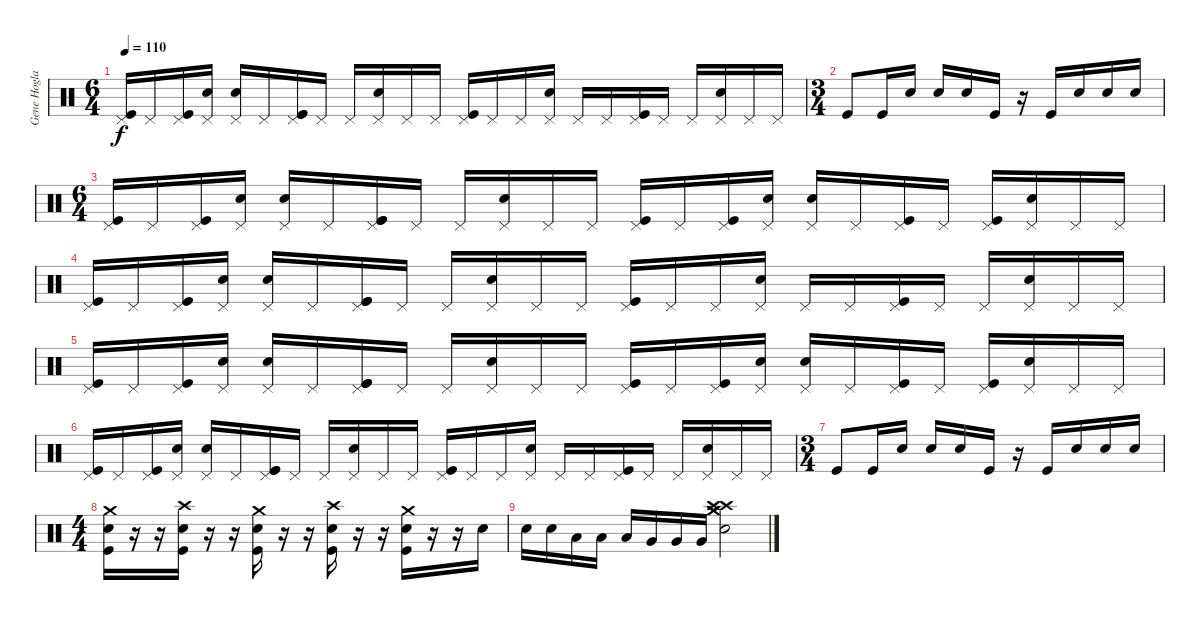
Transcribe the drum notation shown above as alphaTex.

\track ("Gene Hoglan" "Gene Hogla") {instrument percussion}
\staff {score}
\articulation defaults
\ts (6 4)
\tempo 110
\clef neutral
\ks c
("Pedal Hi-Hat (hit)" "Kick (hit)").16{dy f} "Pedal Hi-Hat (hit)".16 ("Pedal Hi-Hat (hit)" "Kick (hit)").16 ("Pedal Hi-Hat (hit)" "Snare (hit) 2").16 ("Pedal Hi-Hat (hit)" "Snare (hit) 2").16 "Pedal Hi-Hat (hit)".16 ("Pedal Hi-Hat (hit)" "Kick (hit)" "Kick (hit)").16 "Pedal Hi-Hat (hit)".16 "Pedal Hi-Hat (hit)".16 ("Pedal Hi-Hat (hit)" "Snare (hit) 2").16 "Pedal Hi-Hat (hit)".16 "Pedal Hi-Hat (hit)".16 ("Pedal Hi-Hat (hit)" "Kick (hit)").16 "Pedal Hi-Hat (hit)".16 "Pedal Hi-Hat (hit)".16 ("Pedal Hi-Hat (hit)" "Snare (hit) 2").16 "Pedal Hi-Hat (hit)".16 "Pedal Hi-Hat (hit)".16 ("Pedal Hi-Hat (hit)" "Kick (hit)").16 "Pedal Hi-Hat (hit)".16 "Pedal Hi-Hat (hit)".16 ("Pedal Hi-Hat (hit)" "Snare (hit) 2").16 "Pedal Hi-Hat (hit)".16 "Pedal Hi-Hat (hit)".16 |
\ts (3 4)
"Kick (hit)".8 "Kick (hit)".16 "Snare (hit) 2".16 "Snare (hit) 2".16 "Snare (hit) 2".16 "Kick (hit)".16 r.16 "Kick (hit)".16 "Snare (hit) 2".16 "Snare (hit) 2".16 "Snare (hit) 2".16 |
\ts (6 4)
("Pedal Hi-Hat (hit)" "Kick (hit)").16 "Pedal Hi-Hat (hit)".16 ("Pedal Hi-Hat (hit)" "Kick (hit)").16 ("Pedal Hi-Hat (hit)" "Snare (hit) 2").16 ("Pedal Hi-Hat (hit)" "Snare (hit) 2").16 "Pedal Hi-Hat (hit)".16 ("Pedal Hi-Hat (hit)" "Kick (hit)" "Kick (hit)").16 "Pedal Hi-Hat (hit)".16 "Pedal Hi-Hat (hit)".16 ("Pedal Hi-Hat (hit)" "Snare (hit) 2").16 "Pedal Hi-Hat (hit)".16 "Pedal Hi-Hat (hit)".16 ("Pedal Hi-Hat (hit)" "Kick (hit)").16 "Pedal Hi-Hat (hit)".16 ("Pedal Hi-Hat (hit)" "Kick (hit)").16 ("Pedal Hi-Hat (hit)" "Snare (hit) 2").16 ("Pedal Hi-Hat (hit)" "Snare (hit) 2").16 "Pedal Hi-Hat (hit)".16 ("Pedal Hi-Hat (hit)" "Kick (hit)").16 "Pedal Hi-Hat (hit)".16 ("Pedal Hi-Hat (hit)" "Kick (hit)").16 ("Pedal Hi-Hat (hit)" "Snare (hit) 2").16 "Pedal Hi-Hat (hit)".16 "Pedal Hi-Hat (hit)".16 |
("Pedal Hi-Hat (hit)" "Kick (hit)").16 "Pedal Hi-Hat (hit)".16 ("Pedal Hi-Hat (hit)" "Kick (hit)").16 ("Pedal Hi-Hat (hit)" "Snare (hit) 2").16 ("Pedal Hi-Hat (hit)" "Snare (hit) 2").16 "Pedal Hi-Hat (hit)".16 ("Pedal Hi-Hat (hit)" "Kick (hit)" "Kick (hit)").16 "Pedal Hi-Hat (hit)".16 "Pedal Hi-Hat (hit)".16 ("Pedal Hi-Hat (hit)" "Snare (hit) 2").16 "Pedal Hi-Hat (hit)".16 "Pedal Hi-Hat (hit)".16 ("Pedal Hi-Hat (hit)" "Kick (hit)").16 "Pedal Hi-Hat (hit)".16 "Pedal Hi-Hat (hit)".16 ("Pedal Hi-Hat (hit)" "Snare (hit) 2").16 "Pedal Hi-Hat (hit)".16 "Pedal Hi-Hat (hit)".16 ("Pedal Hi-Hat (hit)" "Kick (hit)").16 "Pedal Hi-Hat (hit)".16 "Pedal Hi-Hat (hit)".16 ("Pedal Hi-Hat (hit)" "Snare (hit) 2").16 "Pedal Hi-Hat (hit)".16 "Pedal Hi-Hat (hit)".16 |
("Pedal Hi-Hat (hit)" "Kick (hit)").16 "Pedal Hi-Hat (hit)".16 ("Pedal Hi-Hat (hit)" "Kick (hit)").16 ("Pedal Hi-Hat (hit)" "Snare (hit) 2").16 ("Pedal Hi-Hat (hit)" "Snare (hit) 2").16 "Pedal Hi-Hat (hit)".16 ("Pedal Hi-Hat (hit)" "Kick (hit)" "Kick (hit)").16 "Pedal Hi-Hat (hit)".16 "Pedal Hi-Hat (hit)".16 ("Pedal Hi-Hat (hit)" "Snare (hit) 2").16 "Pedal Hi-Hat (hit)".16 "Pedal Hi-Hat (hit)".16 ("Pedal Hi-Hat (hit)" "Kick (hit)").16 "Pedal Hi-Hat (hit)".16 ("Pedal Hi-Hat (hit)" "Kick (hit)").16 ("Pedal Hi-Hat (hit)" "Snare (hit) 2").16 ("Pedal Hi-Hat (hit)" "Snare (hit) 2").16 "Pedal Hi-Hat (hit)".16 ("Pedal Hi-Hat (hit)" "Kick (hit)").16 "Pedal Hi-Hat (hit)".16 ("Pedal Hi-Hat (hit)" "Kick (hit)").16 ("Pedal Hi-Hat (hit)" "Snare (hit) 2").16 "Pedal Hi-Hat (hit)".16 "Pedal Hi-Hat (hit)".16 |
("Pedal Hi-Hat (hit)" "Kick (hit)").16 "Pedal Hi-Hat (hit)".16 ("Pedal Hi-Hat (hit)" "Kick (hit)").16 ("Pedal Hi-Hat (hit)" "Snare (hit) 2").16 ("Pedal Hi-Hat (hit)" "Snare (hit) 2").16 "Pedal Hi-Hat (hit)".16 ("Pedal Hi-Hat (hit)" "Kick (hit)" "Kick (hit)").16 "Pedal Hi-Hat (hit)".16 "Pedal Hi-Hat (hit)".16 ("Pedal Hi-Hat (hit)" "Snare (hit) 2").16 "Pedal Hi-Hat (hit)".16 "Pedal Hi-Hat (hit)".16 ("Pedal Hi-Hat (hit)" "Kick (hit)").16 "Pedal Hi-Hat (hit)".16 "Pedal Hi-Hat (hit)".16 ("Pedal Hi-Hat (hit)" "Snare (hit) 2").16 "Pedal Hi-Hat (hit)".16 "Pedal Hi-Hat (hit)".16 ("Pedal Hi-Hat (hit)" "Kick (hit)").16 "Pedal Hi-Hat (hit)".16 "Pedal Hi-Hat (hit)".16 ("Pedal Hi-Hat (hit)" "Snare (hit) 2").16 "Pedal Hi-Hat (hit)".16 "Pedal Hi-Hat (hit)".16 |
\ts (3 4)
"Kick (hit)".8 "Kick (hit)".16 "Snare (hit) 2".16 "Snare (hit) 2".16 "Snare (hit) 2".16 "Kick (hit)".16 r.16 "Kick (hit)".16 "Snare (hit) 2".16 "Snare (hit) 2".16 "Snare (hit) 2".16 |
\ts (4 4)
("Crash medium (hit)" "Snare (hit) 2" "Kick (hit)").16 r.16 r.16 ("Crash high (hit)" "Snare (hit) 2" "Kick (hit)").16 r.16 r.16 ("Crash medium (hit)" "Snare (hit) 2" "Kick (hit)").16 r.16 r.16 ("Crash high (hit)" "Snare (hit) 2" "Kick (hit)").16 r.16 r.16 ("Crash medium (hit)" "Snare (hit) 2" "Kick (hit)").16 r.16 r.16 "Electric Snare (hit)".16 |
"Electric Snare (hit)".16 "Electric Snare (hit)".16 "Low Tom (hit)".16 "Low Tom (hit)".16 "Low Tom (hit)".16 "Very Low Tom (hit)".16 "Very Low Tom (hit)".16 "Very Low Tom (hit)".16 ("Crash medium (hit)" "Crash medium (hit)" "Crash high (hit)" "Crash high (hit)" "Snare (hit) 2").2
